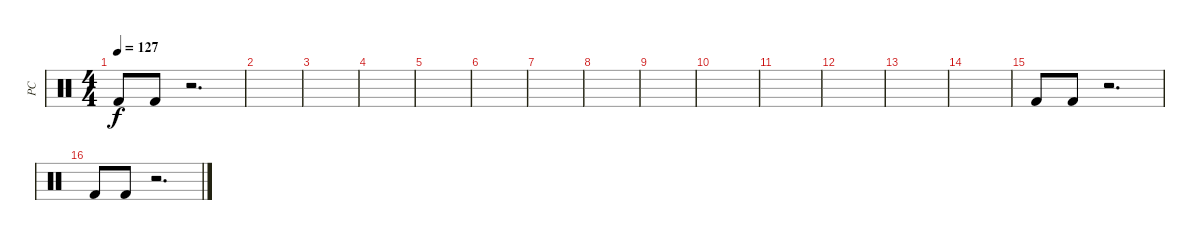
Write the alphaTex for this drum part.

\track ("PC" "PC") {instrument percussion}
\staff {score}
\articulation defaults
\ts (4 4)
\tempo 127
\clef neutral
\ks c "Kick (hit) 2".8{dy f} "Kick (hit) 2".8
r.2{d} |
|
|
|
|
|
|
|
|
|
|
|
|
|
"Kick (hit) 2".8 "Kick (hit) 2".8 r.2{d} |
"Kick (hit) 2".8 "Kick (hit) 2".8 r.2{d}
